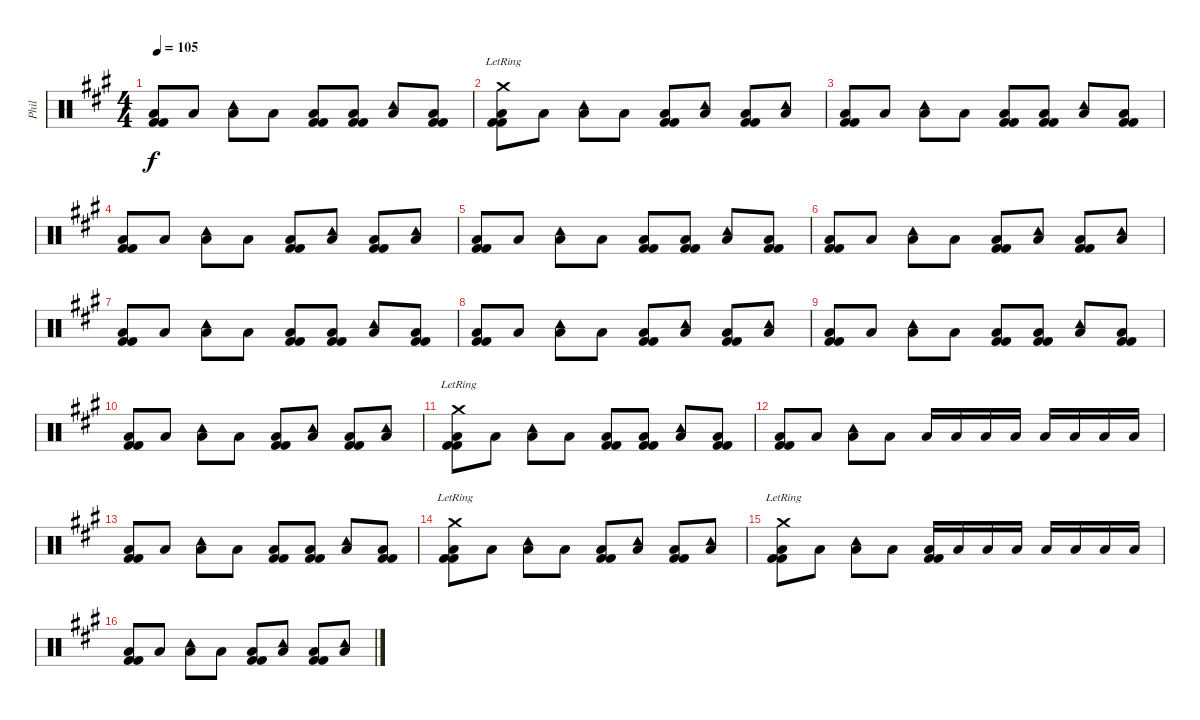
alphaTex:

\track ("Phil" "Phil") {instrument percussion}
\staff {score}
\articulation defaults
\ts (4 4)
\tempo 105
\clef neutral
\ks a
("Kick (hit) 2" "Low Floor Tom (hit)" "Kick (hit) 2").8{dy f} "Low Floor Tom (hit)".8 ("Low Floor Tom (hit)" "Tambourine (hit)").8 "Low Floor Tom (hit)".8 ("Kick (hit) 2" "Low Floor Tom (hit)" "Kick (hit) 2").8 ("Kick (hit) 2" "Low Floor Tom (hit)" "Kick (hit) 2").8 ("Low Floor Tom (hit)" "Tambourine (hit)").8 ("Kick (hit) 2" "Low Floor Tom (hit)" "Kick (hit) 2").8 |
("Kick (hit) 2" "Low Floor Tom (hit)" "Kick (hit) 2" "Crash medium (hit)"{lr}).8 "Low Floor Tom (hit)".8 ("Low Floor Tom (hit)" "Tambourine (hit)").8 "Low Floor Tom (hit)".8 ("Kick (hit) 2" "Low Floor Tom (hit)" "Kick (hit) 2").8 ("Low Floor Tom (hit)" "Tambourine (hit)").8 ("Kick (hit) 2" "Low Floor Tom (hit)" "Kick (hit) 2").8 ("Low Floor Tom (hit)" "Tambourine (hit)").8 |
("Kick (hit) 2" "Low Floor Tom (hit)" "Kick (hit) 2").8 "Low Floor Tom (hit)".8 ("Low Floor Tom (hit)" "Tambourine (hit)").8 "Low Floor Tom (hit)".8 ("Kick (hit) 2" "Low Floor Tom (hit)" "Kick (hit) 2").8 ("Kick (hit) 2" "Low Floor Tom (hit)" "Kick (hit) 2").8 ("Low Floor Tom (hit)" "Tambourine (hit)").8 ("Kick (hit) 2" "Low Floor Tom (hit)" "Kick (hit) 2").8 |
("Kick (hit) 2" "Low Floor Tom (hit)" "Kick (hit) 2").8 "Low Floor Tom (hit)".8 ("Low Floor Tom (hit)" "Tambourine (hit)").8 "Low Floor Tom (hit)".8 ("Kick (hit) 2" "Low Floor Tom (hit)" "Kick (hit) 2").8 ("Low Floor Tom (hit)" "Tambourine (hit)").8 ("Kick (hit) 2" "Low Floor Tom (hit)" "Kick (hit) 2").8 ("Low Floor Tom (hit)" "Tambourine (hit)").8 |
("Kick (hit) 2" "Low Floor Tom (hit)" "Kick (hit) 2").8 "Low Floor Tom (hit)".8 ("Low Floor Tom (hit)" "Tambourine (hit)").8 "Low Floor Tom (hit)".8 ("Kick (hit) 2" "Low Floor Tom (hit)" "Kick (hit) 2").8 ("Kick (hit) 2" "Low Floor Tom (hit)" "Kick (hit) 2").8 ("Low Floor Tom (hit)" "Tambourine (hit)").8 ("Kick (hit) 2" "Low Floor Tom (hit)" "Kick (hit) 2").8 |
("Kick (hit) 2" "Low Floor Tom (hit)" "Kick (hit) 2").8 "Low Floor Tom (hit)".8 ("Low Floor Tom (hit)" "Tambourine (hit)").8 "Low Floor Tom (hit)".8 ("Kick (hit) 2" "Low Floor Tom (hit)" "Kick (hit) 2").8 ("Low Floor Tom (hit)" "Tambourine (hit)").8 ("Kick (hit) 2" "Low Floor Tom (hit)" "Kick (hit) 2").8 ("Low Floor Tom (hit)" "Tambourine (hit)").8 |
("Kick (hit) 2" "Low Floor Tom (hit)" "Kick (hit) 2").8 "Low Floor Tom (hit)".8 ("Low Floor Tom (hit)" "Tambourine (hit)").8 "Low Floor Tom (hit)".8 ("Kick (hit) 2" "Low Floor Tom (hit)" "Kick (hit) 2").8 ("Kick (hit) 2" "Low Floor Tom (hit)" "Kick (hit) 2").8 ("Low Floor Tom (hit)" "Tambourine (hit)").8 ("Kick (hit) 2" "Low Floor Tom (hit)" "Kick (hit) 2").8 |
("Kick (hit) 2" "Low Floor Tom (hit)" "Kick (hit) 2").8 "Low Floor Tom (hit)".8 ("Low Floor Tom (hit)" "Tambourine (hit)").8 "Low Floor Tom (hit)".8 ("Kick (hit) 2" "Low Floor Tom (hit)" "Kick (hit) 2").8 ("Low Floor Tom (hit)" "Tambourine (hit)").8 ("Kick (hit) 2" "Low Floor Tom (hit)" "Kick (hit) 2").8 ("Low Floor Tom (hit)" "Tambourine (hit)").8 |
("Kick (hit) 2" "Low Floor Tom (hit)" "Kick (hit) 2").8 "Low Floor Tom (hit)".8 ("Low Floor Tom (hit)" "Tambourine (hit)").8 "Low Floor Tom (hit)".8 ("Kick (hit) 2" "Low Floor Tom (hit)" "Kick (hit) 2").8 ("Kick (hit) 2" "Low Floor Tom (hit)" "Kick (hit) 2").8 ("Low Floor Tom (hit)" "Tambourine (hit)").8 ("Kick (hit) 2" "Low Floor Tom (hit)" "Kick (hit) 2").8 |
("Kick (hit) 2" "Low Floor Tom (hit)" "Kick (hit) 2").8 "Low Floor Tom (hit)".8 ("Low Floor Tom (hit)" "Tambourine (hit)").8 "Low Floor Tom (hit)".8 ("Kick (hit) 2" "Low Floor Tom (hit)" "Kick (hit) 2").8 ("Low Floor Tom (hit)" "Tambourine (hit)").8 ("Kick (hit) 2" "Low Floor Tom (hit)" "Kick (hit) 2").8 ("Low Floor Tom (hit)" "Tambourine (hit)").8 |
("Kick (hit) 2" "Low Floor Tom (hit)" "Kick (hit) 2" "Crash medium (hit)"{lr}).8 "Low Floor Tom (hit)".8 ("Low Floor Tom (hit)" "Tambourine (hit)").8 "Low Floor Tom (hit)".8 ("Kick (hit) 2" "Low Floor Tom (hit)" "Kick (hit) 2").8 ("Kick (hit) 2" "Low Floor Tom (hit)" "Kick (hit) 2").8 ("Low Floor Tom (hit)" "Tambourine (hit)").8 ("Kick (hit) 2" "Low Floor Tom (hit)" "Kick (hit) 2").8 |
("Kick (hit) 2" "Low Floor Tom (hit)" "Kick (hit) 2").8 "Low Floor Tom (hit)".8 ("Low Floor Tom (hit)" "Tambourine (hit)").8 "Low Floor Tom (hit)".8 "Low Floor Tom (hit)".16 "Low Tom (hit)".16 "Low Tom (hit)".16 "Low Floor Tom (hit)".16 "Low Floor Tom (hit)".16 "Low Tom (hit)".16 "Low Tom (hit)".16 "Low Floor Tom (hit)".16 |
("Kick (hit) 2" "Low Floor Tom (hit)" "Kick (hit) 2").8 "Low Floor Tom (hit)".8 ("Low Floor Tom (hit)" "Tambourine (hit)").8 "Low Floor Tom (hit)".8 ("Kick (hit) 2" "Low Floor Tom (hit)" "Kick (hit) 2").8 ("Kick (hit) 2" "Low Floor Tom (hit)" "Kick (hit) 2").8 ("Low Floor Tom (hit)" "Tambourine (hit)").8 ("Kick (hit) 2" "Low Floor Tom (hit)" "Kick (hit) 2").8 |
("Kick (hit) 2" "Low Floor Tom (hit)" "Kick (hit) 2" "Crash medium (hit)"{lr}).8 "Low Floor Tom (hit)".8 ("Low Floor Tom (hit)" "Tambourine (hit)").8 "Low Floor Tom (hit)".8 ("Kick (hit) 2" "Low Floor Tom (hit)" "Kick (hit) 2").8 ("Low Floor Tom (hit)" "Tambourine (hit)").8 ("Kick (hit) 2" "Low Floor Tom (hit)" "Kick (hit) 2").8 ("Low Floor Tom (hit)" "Tambourine (hit)").8 |
("Kick (hit) 2" "Low Floor Tom (hit)" "Kick (hit) 2" "Crash medium (hit)"{lr}).8 "Low Floor Tom (hit)".8 ("Low Floor Tom (hit)" "Tambourine (hit)").8 "Low Floor Tom (hit)".8 ("Kick (hit) 2" "Low Floor Tom (hit)" "Kick (hit) 2").16 "Low Tom (hit)".16 "Low Tom (hit)".16 "Low Floor Tom (hit)".16 "Low Floor Tom (hit)".16 "Low Tom (hit)".16 "Low Tom (hit)".16 "Low Floor Tom (hit)".16 |
("Kick (hit) 2" "Low Floor Tom (hit)" "Kick (hit) 2").8 "Low Floor Tom (hit)".8 ("Low Floor Tom (hit)" "Tambourine (hit)").8 "Low Floor Tom (hit)".8 ("Kick (hit) 2" "Low Floor Tom (hit)" "Kick (hit) 2").8 ("Low Floor Tom (hit)" "Tambourine (hit)").8 ("Kick (hit) 2" "Low Floor Tom (hit)" "Kick (hit) 2").8 ("Low Floor Tom (hit)" "Tambourine (hit)").8
